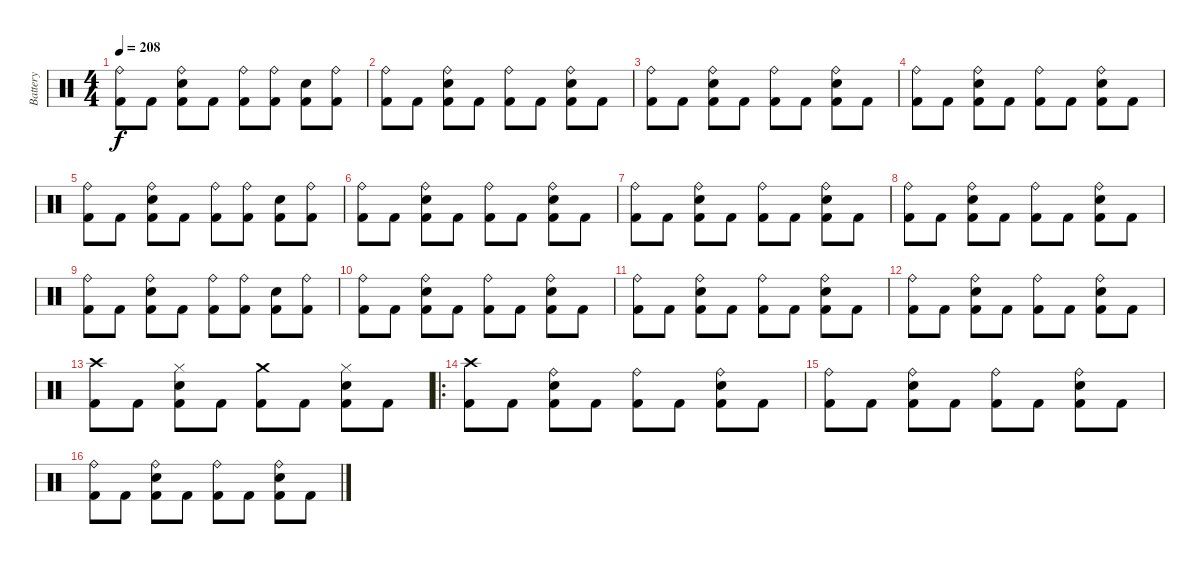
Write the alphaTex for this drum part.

\track ("Battery" "Battery") {instrument percussion}
\staff {score}
\articulation defaults
\ts (4 4)
\tempo 208
\clef neutral
\ks c
("Ride (bell)" "Kick (hit) 2").8{dy f} "Kick (hit) 2".8 ("Ride (bell)" "Electric Snare (hit)" "Kick (hit) 2").8 "Kick (hit) 2".8 ("Ride (bell)" "Kick (hit) 2").8 ("Ride (bell)" "Kick (hit) 2").8 ("Electric Snare (hit)" "Kick (hit) 2").8 ("Ride (bell)" "Kick (hit) 2").8 |
("Ride (bell)" "Kick (hit) 2").8 "Kick (hit) 2".8 ("Ride (bell)" "Electric Snare (hit)" "Kick (hit) 2").8 "Kick (hit) 2".8 ("Ride (bell)" "Kick (hit) 2").8 "Kick (hit) 2".8 ("Ride (bell)" "Electric Snare (hit)" "Kick (hit) 2").8 "Kick (hit) 2".8 |
("Ride (bell)" "Kick (hit) 2").8 "Kick (hit) 2".8 ("Ride (bell)" "Electric Snare (hit)" "Kick (hit) 2").8 "Kick (hit) 2".8 ("Ride (bell)" "Kick (hit) 2").8 "Kick (hit) 2".8 ("Ride (bell)" "Electric Snare (hit)" "Kick (hit) 2").8 "Kick (hit) 2".8 |
("Ride (bell)" "Kick (hit) 2").8 "Kick (hit) 2".8 ("Ride (bell)" "Electric Snare (hit)" "Kick (hit) 2").8 "Kick (hit) 2".8 ("Ride (bell)" "Kick (hit) 2").8 "Kick (hit) 2".8 ("Ride (bell)" "Electric Snare (hit)" "Kick (hit) 2").8 "Kick (hit) 2".8 |
("Ride (bell)" "Kick (hit) 2").8 "Kick (hit) 2".8 ("Ride (bell)" "Electric Snare (hit)" "Kick (hit) 2").8 "Kick (hit) 2".8 ("Ride (bell)" "Kick (hit) 2").8 ("Ride (bell)" "Kick (hit) 2").8 ("Electric Snare (hit)" "Kick (hit) 2").8 ("Ride (bell)" "Kick (hit) 2").8 |
("Ride (bell)" "Kick (hit) 2").8 "Kick (hit) 2".8 ("Ride (bell)" "Electric Snare (hit)" "Kick (hit) 2").8 "Kick (hit) 2".8 ("Ride (bell)" "Kick (hit) 2").8 "Kick (hit) 2".8 ("Ride (bell)" "Electric Snare (hit)" "Kick (hit) 2").8 "Kick (hit) 2".8 |
("Ride (bell)" "Kick (hit) 2").8 "Kick (hit) 2".8 ("Ride (bell)" "Electric Snare (hit)" "Kick (hit) 2").8 "Kick (hit) 2".8 ("Ride (bell)" "Kick (hit) 2").8 "Kick (hit) 2".8 ("Ride (bell)" "Electric Snare (hit)" "Kick (hit) 2").8 "Kick (hit) 2".8 |
("Ride (bell)" "Kick (hit) 2").8 "Kick (hit) 2".8 ("Ride (bell)" "Electric Snare (hit)" "Kick (hit) 2").8 "Kick (hit) 2".8 ("Ride (bell)" "Kick (hit) 2").8 "Kick (hit) 2".8 ("Ride (bell)" "Electric Snare (hit)" "Kick (hit) 2").8 "Kick (hit) 2".8 |
("Ride (bell)" "Kick (hit) 2").8 "Kick (hit) 2".8 ("Ride (bell)" "Electric Snare (hit)" "Kick (hit) 2").8 "Kick (hit) 2".8 ("Ride (bell)" "Kick (hit) 2").8 ("Ride (bell)" "Kick (hit) 2").8 ("Electric Snare (hit)" "Kick (hit) 2").8 ("Ride (bell)" "Kick (hit) 2").8 |
("Ride (bell)" "Kick (hit) 2").8 "Kick (hit) 2".8 ("Ride (bell)" "Electric Snare (hit)" "Kick (hit) 2").8 "Kick (hit) 2".8 ("Ride (bell)" "Kick (hit) 2").8 "Kick (hit) 2".8 ("Ride (bell)" "Electric Snare (hit)" "Kick (hit) 2").8 "Kick (hit) 2".8 |
("Ride (bell)" "Kick (hit) 2").8 "Kick (hit) 2".8 ("Ride (bell)" "Electric Snare (hit)" "Kick (hit) 2").8 "Kick (hit) 2".8 ("Ride (bell)" "Kick (hit) 2").8 "Kick (hit) 2".8 ("Ride (bell)" "Electric Snare (hit)" "Kick (hit) 2").8 "Kick (hit) 2".8 |
("Ride (bell)" "Kick (hit) 2").8 "Kick (hit) 2".8 ("Ride (bell)" "Electric Snare (hit)" "Kick (hit) 2").8 "Kick (hit) 2".8 ("Ride (bell)" "Kick (hit) 2").8 "Kick (hit) 2".8 ("Ride (bell)" "Electric Snare (hit)" "Kick (hit) 2").8 "Kick (hit) 2".8 |
("Crash high (hit)" "Kick (hit) 2").8 "Kick (hit) 2".8 ("Hi-Hat (closed)" "Electric Snare (hit)" "Kick (hit) 2").8 "Kick (hit) 2".8 ("Crash medium (hit)" "Kick (hit) 2").8 "Kick (hit) 2".8 ("Hi-Hat (closed)" "Electric Snare (hit)" "Kick (hit) 2").8 "Kick (hit) 2".8 |
\ro
("Crash high (hit)" "Kick (hit) 2").8 "Kick (hit) 2".8 ("Ride (bell)" "Electric Snare (hit)" "Kick (hit) 2").8 "Kick (hit) 2".8 ("Ride (bell)" "Kick (hit) 2").8 "Kick (hit) 2".8 ("Ride (bell)" "Electric Snare (hit)" "Kick (hit) 2").8 "Kick (hit) 2".8 |
("Ride (bell)" "Kick (hit) 2").8 "Kick (hit) 2".8 ("Ride (bell)" "Electric Snare (hit)" "Kick (hit) 2").8 "Kick (hit) 2".8 ("Ride (bell)" "Kick (hit) 2").8 "Kick (hit) 2".8 ("Ride (bell)" "Electric Snare (hit)" "Kick (hit) 2").8 "Kick (hit) 2".8 |
("Ride (bell)" "Kick (hit) 2").8 "Kick (hit) 2".8 ("Ride (bell)" "Electric Snare (hit)" "Kick (hit) 2").8 "Kick (hit) 2".8 ("Ride (bell)" "Kick (hit) 2").8 "Kick (hit) 2".8 ("Ride (bell)" "Electric Snare (hit)" "Kick (hit) 2").8 "Kick (hit) 2".8
